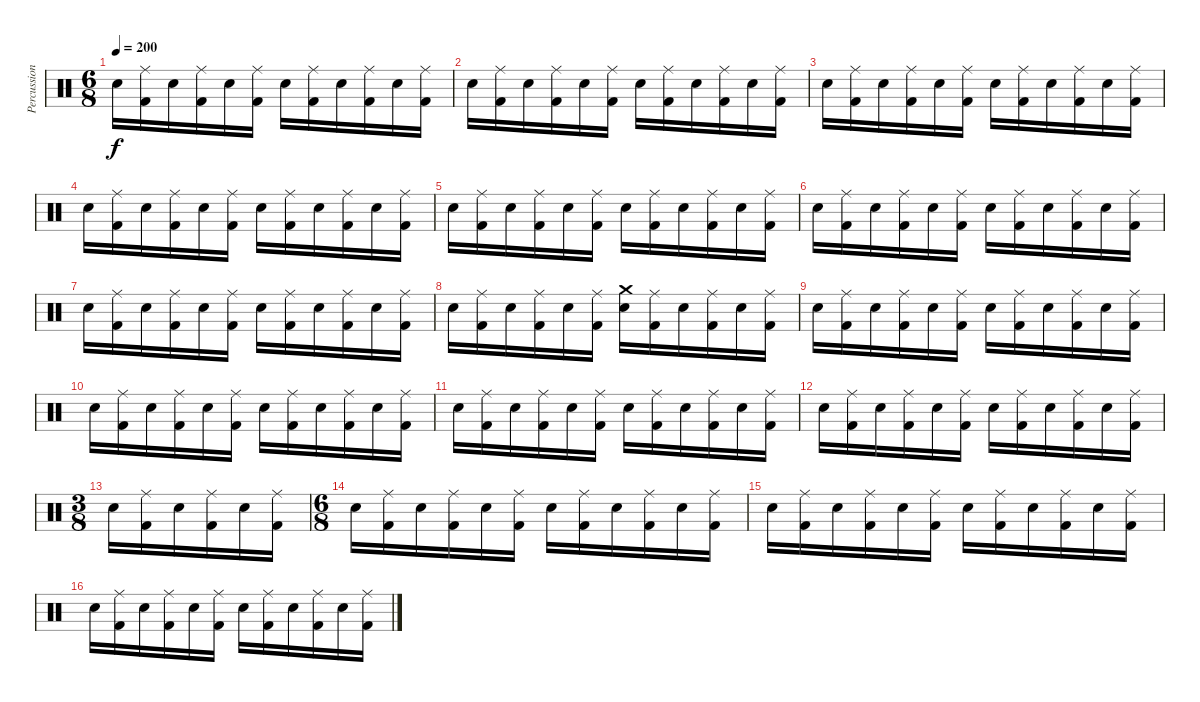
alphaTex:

\track ("Percussion" "Percussion") {instrument percussion}
\staff {score}
\articulation defaults
\ts (6 8)
\tempo 200
\clef neutral
\ks c "Electric Snare (hit)".16{dy f}
("Ride (middle)" "Kick (hit) 2").16 "Electric Snare (hit)".16 ("Ride (middle)" "Kick (hit) 2").16 "Electric Snare (hit)".16 ("Ride (middle)" "Kick (hit) 2").16 "Electric Snare (hit)".16 ("Ride (middle)" "Kick (hit) 2").16 "Electric Snare (hit)".16 ("Ride (middle)" "Kick (hit) 2").16 "Electric Snare (hit)".16 ("Ride (middle)" "Kick (hit) 2").16 |
"Electric Snare (hit)".16 ("Ride (middle)" "Kick (hit) 2").16 "Electric Snare (hit)".16 ("Ride (middle)" "Kick (hit) 2").16 "Electric Snare (hit)".16 ("Ride (middle)" "Kick (hit) 2").16 "Electric Snare (hit)".16 ("Ride (middle)" "Kick (hit) 2").16 "Electric Snare (hit)".16 ("Ride (middle)" "Kick (hit) 2").16 "Electric Snare (hit)".16 ("Ride (middle)" "Kick (hit) 2").16 |
"Electric Snare (hit)".16 ("Ride (middle)" "Kick (hit) 2").16 "Electric Snare (hit)".16 ("Ride (middle)" "Kick (hit) 2").16 "Electric Snare (hit)".16 ("Ride (middle)" "Kick (hit) 2").16 "Electric Snare (hit)".16 ("Ride (middle)" "Kick (hit) 2").16 "Electric Snare (hit)".16 ("Ride (middle)" "Kick (hit) 2").16 "Electric Snare (hit)".16 ("Ride (middle)" "Kick (hit) 2").16 |
"Electric Snare (hit)".16 ("Ride (middle)" "Kick (hit) 2").16 "Electric Snare (hit)".16 ("Ride (middle)" "Kick (hit) 2").16 "Electric Snare (hit)".16 ("Ride (middle)" "Kick (hit) 2").16 "Electric Snare (hit)".16 ("Ride (middle)" "Kick (hit) 2").16 "Electric Snare (hit)".16 ("Ride (middle)" "Kick (hit) 2").16 "Electric Snare (hit)".16 ("Ride (middle)" "Kick (hit) 2").16 |
"Electric Snare (hit)".16 ("Ride (middle)" "Kick (hit) 2").16 "Electric Snare (hit)".16 ("Ride (middle)" "Kick (hit) 2").16 "Electric Snare (hit)".16 ("Ride (middle)" "Kick (hit) 2").16 "Electric Snare (hit)".16 ("Ride (middle)" "Kick (hit) 2").16 "Electric Snare (hit)".16 ("Ride (middle)" "Kick (hit) 2").16 "Electric Snare (hit)".16 ("Ride (middle)" "Kick (hit) 2").16 |
"Electric Snare (hit)".16 ("Ride (middle)" "Kick (hit) 2").16 "Electric Snare (hit)".16 ("Ride (middle)" "Kick (hit) 2").16 "Electric Snare (hit)".16 ("Ride (middle)" "Kick (hit) 2").16 "Electric Snare (hit)".16 ("Ride (middle)" "Kick (hit) 2").16 "Electric Snare (hit)".16 ("Ride (middle)" "Kick (hit) 2").16 "Electric Snare (hit)".16 ("Ride (middle)" "Kick (hit) 2").16 |
"Electric Snare (hit)".16 ("Ride (middle)" "Kick (hit) 2").16 "Electric Snare (hit)".16 ("Ride (middle)" "Kick (hit) 2").16 "Electric Snare (hit)".16 ("Ride (middle)" "Kick (hit) 2").16 "Electric Snare (hit)".16 ("Ride (middle)" "Kick (hit) 2").16 "Electric Snare (hit)".16 ("Ride (middle)" "Kick (hit) 2").16 "Electric Snare (hit)".16 ("Ride (middle)" "Kick (hit) 2").16 |
"Electric Snare (hit)".16 ("Ride (middle)" "Kick (hit) 2").16 "Electric Snare (hit)".16 ("Ride (middle)" "Kick (hit) 2").16 "Electric Snare (hit)".16 ("Ride (middle)" "Kick (hit) 2").16 ("Crash medium (hit)" "Electric Snare (hit)").16 ("Ride (middle)" "Kick (hit) 2").16 "Electric Snare (hit)".16 ("Ride (middle)" "Kick (hit) 2").16 "Electric Snare (hit)".16 ("Ride (middle)" "Kick (hit) 2").16 |
"Electric Snare (hit)".16 ("Ride (middle)" "Kick (hit) 2").16 "Electric Snare (hit)".16 ("Ride (middle)" "Kick (hit) 2").16 "Electric Snare (hit)".16 ("Ride (middle)" "Kick (hit) 2").16 "Electric Snare (hit)".16 ("Ride (middle)" "Kick (hit) 2").16 "Electric Snare (hit)".16 ("Ride (middle)" "Kick (hit) 2").16 "Electric Snare (hit)".16 ("Ride (middle)" "Kick (hit) 2").16 |
"Electric Snare (hit)".16 ("Ride (middle)" "Kick (hit) 2").16 "Electric Snare (hit)".16 ("Ride (middle)" "Kick (hit) 2").16 "Electric Snare (hit)".16 ("Ride (middle)" "Kick (hit) 2").16 "Electric Snare (hit)".16 ("Ride (middle)" "Kick (hit) 2").16 "Electric Snare (hit)".16 ("Ride (middle)" "Kick (hit) 2").16 "Electric Snare (hit)".16 ("Ride (middle)" "Kick (hit) 2").16 |
"Electric Snare (hit)".16 ("Ride (middle)" "Kick (hit) 2").16 "Electric Snare (hit)".16 ("Ride (middle)" "Kick (hit) 2").16 "Electric Snare (hit)".16 ("Ride (middle)" "Kick (hit) 2").16 "Electric Snare (hit)".16 ("Ride (middle)" "Kick (hit) 2").16 "Electric Snare (hit)".16 ("Ride (middle)" "Kick (hit) 2").16 "Electric Snare (hit)".16 ("Ride (middle)" "Kick (hit) 2").16 |
"Electric Snare (hit)".16 ("Ride (middle)" "Kick (hit) 2").16 "Electric Snare (hit)".16 ("Ride (middle)" "Kick (hit) 2").16 "Electric Snare (hit)".16 ("Ride (middle)" "Kick (hit) 2").16 "Electric Snare (hit)".16 ("Ride (middle)" "Kick (hit) 2").16 "Electric Snare (hit)".16 ("Ride (middle)" "Kick (hit) 2").16 "Electric Snare (hit)".16 ("Ride (middle)" "Kick (hit) 2").16 |
\ts (3 8)
"Electric Snare (hit)".16 ("Ride (middle)" "Kick (hit) 2").16 "Electric Snare (hit)".16 ("Ride (middle)" "Kick (hit) 2").16 "Electric Snare (hit)".16 ("Ride (middle)" "Kick (hit) 2").16 |
\ts (6 8)
"Electric Snare (hit)".16 ("Ride (middle)" "Kick (hit) 2").16 "Electric Snare (hit)".16 ("Ride (middle)" "Kick (hit) 2").16 "Electric Snare (hit)".16 ("Ride (middle)" "Kick (hit) 2").16 "Electric Snare (hit)".16 ("Ride (middle)" "Kick (hit) 2").16 "Electric Snare (hit)".16 ("Ride (middle)" "Kick (hit) 2").16 "Electric Snare (hit)".16 ("Ride (middle)" "Kick (hit) 2").16 |
"Electric Snare (hit)".16 ("Ride (middle)" "Kick (hit) 2").16 "Electric Snare (hit)".16 ("Ride (middle)" "Kick (hit) 2").16 "Electric Snare (hit)".16 ("Ride (middle)" "Kick (hit) 2").16 "Electric Snare (hit)".16 ("Ride (middle)" "Kick (hit) 2").16 "Electric Snare (hit)".16 ("Ride (middle)" "Kick (hit) 2").16 "Electric Snare (hit)".16 ("Ride (middle)" "Kick (hit) 2").16 |
"Electric Snare (hit)".16 ("Ride (middle)" "Kick (hit) 2").16 "Electric Snare (hit)".16 ("Ride (middle)" "Kick (hit) 2").16 "Electric Snare (hit)".16 ("Ride (middle)" "Kick (hit) 2").16 "Electric Snare (hit)".16 ("Ride (middle)" "Kick (hit) 2").16 "Electric Snare (hit)".16 ("Ride (middle)" "Kick (hit) 2").16 "Electric Snare (hit)".16 ("Ride (middle)" "Kick (hit) 2").16
